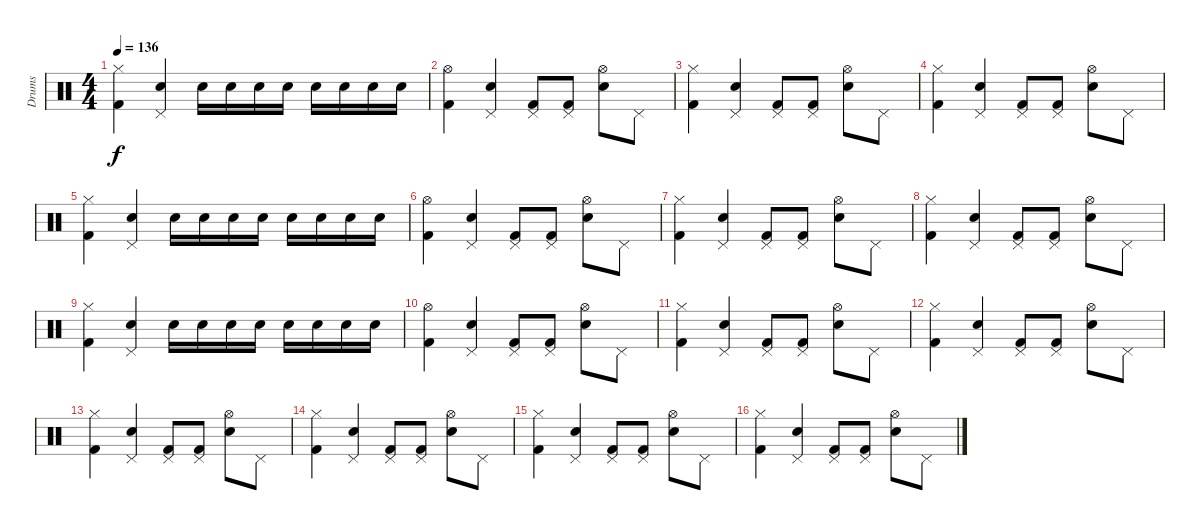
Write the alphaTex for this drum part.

\track ("Drums" "Drums") {instrument percussion}
\staff {score}
\articulation defaults
\ts (4 4)
\tempo 136
\clef neutral
\ks c
("Hi-Hat (closed)" "Kick (hit) 2").4{dy f} ("Snare (hit) 2" "Pedal Hi-Hat (hit)").4 "Snare (hit) 2".16 "Snare (hit) 2".16 "Snare (hit) 2".16 "Snare (hit) 2".16 "Snare (hit) 2".16 "Snare (hit) 2".16 "Snare (hit) 2".16 "Snare (hit) 2".16 |
("Hi-Hat (open)" "Kick (hit) 2").4 ("Snare (hit) 2" "Pedal Hi-Hat (hit)").4 ("Pedal Hi-Hat (hit)" "Kick (hit) 2").8 ("Pedal Hi-Hat (hit)" "Kick (hit) 2").8 ("Snare (hit) 2" "Hi-Hat (open)").8 "Pedal Hi-Hat (hit)".8 |
("Hi-Hat (closed)" "Kick (hit) 2").4 ("Snare (hit) 2" "Pedal Hi-Hat (hit)").4 ("Pedal Hi-Hat (hit)" "Kick (hit) 2").8 ("Pedal Hi-Hat (hit)" "Kick (hit) 2").8 ("Snare (hit) 2" "Hi-Hat (open)").8 "Pedal Hi-Hat (hit)".8 |
("Hi-Hat (closed)" "Kick (hit) 2").4 ("Snare (hit) 2" "Pedal Hi-Hat (hit)").4 ("Pedal Hi-Hat (hit)" "Kick (hit) 2").8 ("Pedal Hi-Hat (hit)" "Kick (hit) 2").8 ("Snare (hit) 2" "Hi-Hat (open)").8 "Pedal Hi-Hat (hit)".8 |
("Hi-Hat (closed)" "Kick (hit) 2").4 ("Snare (hit) 2" "Pedal Hi-Hat (hit)").4 "Snare (hit) 2".16 "Snare (hit) 2".16 "Snare (hit) 2".16 "Snare (hit) 2".16 "Snare (hit) 2".16 "Snare (hit) 2".16 "Snare (hit) 2".16 "Snare (hit) 2".16 |
("Hi-Hat (open)" "Kick (hit) 2").4 ("Snare (hit) 2" "Pedal Hi-Hat (hit)").4 ("Pedal Hi-Hat (hit)" "Kick (hit) 2").8 ("Pedal Hi-Hat (hit)" "Kick (hit) 2").8 ("Snare (hit) 2" "Hi-Hat (open)").8 "Pedal Hi-Hat (hit)".8 |
("Hi-Hat (closed)" "Kick (hit) 2").4 ("Snare (hit) 2" "Pedal Hi-Hat (hit)").4 ("Pedal Hi-Hat (hit)" "Kick (hit) 2").8 ("Pedal Hi-Hat (hit)" "Kick (hit) 2").8 ("Snare (hit) 2" "Hi-Hat (open)").8 "Pedal Hi-Hat (hit)".8 |
("Hi-Hat (closed)" "Kick (hit) 2").4 ("Snare (hit) 2" "Pedal Hi-Hat (hit)").4 ("Pedal Hi-Hat (hit)" "Kick (hit) 2").8 ("Pedal Hi-Hat (hit)" "Kick (hit) 2").8 ("Snare (hit) 2" "Hi-Hat (open)").8 "Pedal Hi-Hat (hit)".8 |
("Hi-Hat (closed)" "Kick (hit) 2").4 ("Snare (hit) 2" "Pedal Hi-Hat (hit)").4 "Snare (hit) 2".16 "Snare (hit) 2".16 "Snare (hit) 2".16 "Snare (hit) 2".16 "Snare (hit) 2".16 "Snare (hit) 2".16 "Snare (hit) 2".16 "Snare (hit) 2".16 |
("Hi-Hat (open)" "Kick (hit) 2").4 ("Snare (hit) 2" "Pedal Hi-Hat (hit)").4 ("Pedal Hi-Hat (hit)" "Kick (hit) 2").8 ("Pedal Hi-Hat (hit)" "Kick (hit) 2").8 ("Snare (hit) 2" "Hi-Hat (open)").8 "Pedal Hi-Hat (hit)".8 |
("Hi-Hat (closed)" "Kick (hit) 2").4 ("Snare (hit) 2" "Pedal Hi-Hat (hit)").4 ("Pedal Hi-Hat (hit)" "Kick (hit) 2").8 ("Pedal Hi-Hat (hit)" "Kick (hit) 2").8 ("Snare (hit) 2" "Hi-Hat (open)").8 "Pedal Hi-Hat (hit)".8 |
("Hi-Hat (closed)" "Kick (hit) 2").4 ("Snare (hit) 2" "Pedal Hi-Hat (hit)").4 ("Pedal Hi-Hat (hit)" "Kick (hit) 2").8 ("Pedal Hi-Hat (hit)" "Kick (hit) 2").8 ("Snare (hit) 2" "Hi-Hat (open)").8 "Pedal Hi-Hat (hit)".8 |
("Hi-Hat (closed)" "Kick (hit) 2").4 ("Snare (hit) 2" "Pedal Hi-Hat (hit)").4 ("Pedal Hi-Hat (hit)" "Kick (hit) 2").8 ("Pedal Hi-Hat (hit)" "Kick (hit) 2").8 ("Snare (hit) 2" "Hi-Hat (open)").8 "Pedal Hi-Hat (hit)".8 |
("Hi-Hat (closed)" "Kick (hit) 2").4 ("Snare (hit) 2" "Pedal Hi-Hat (hit)").4 ("Pedal Hi-Hat (hit)" "Kick (hit) 2").8 ("Pedal Hi-Hat (hit)" "Kick (hit) 2").8 ("Snare (hit) 2" "Hi-Hat (open)").8 "Pedal Hi-Hat (hit)".8 |
("Hi-Hat (closed)" "Kick (hit) 2").4 ("Snare (hit) 2" "Pedal Hi-Hat (hit)").4 ("Pedal Hi-Hat (hit)" "Kick (hit) 2").8 ("Pedal Hi-Hat (hit)" "Kick (hit) 2").8 ("Snare (hit) 2" "Hi-Hat (open)").8 "Pedal Hi-Hat (hit)".8 |
("Hi-Hat (closed)" "Kick (hit) 2").4 ("Snare (hit) 2" "Pedal Hi-Hat (hit)").4 ("Pedal Hi-Hat (hit)" "Kick (hit) 2").8 ("Pedal Hi-Hat (hit)" "Kick (hit) 2").8 ("Snare (hit) 2" "Hi-Hat (open)").8 "Pedal Hi-Hat (hit)".8
